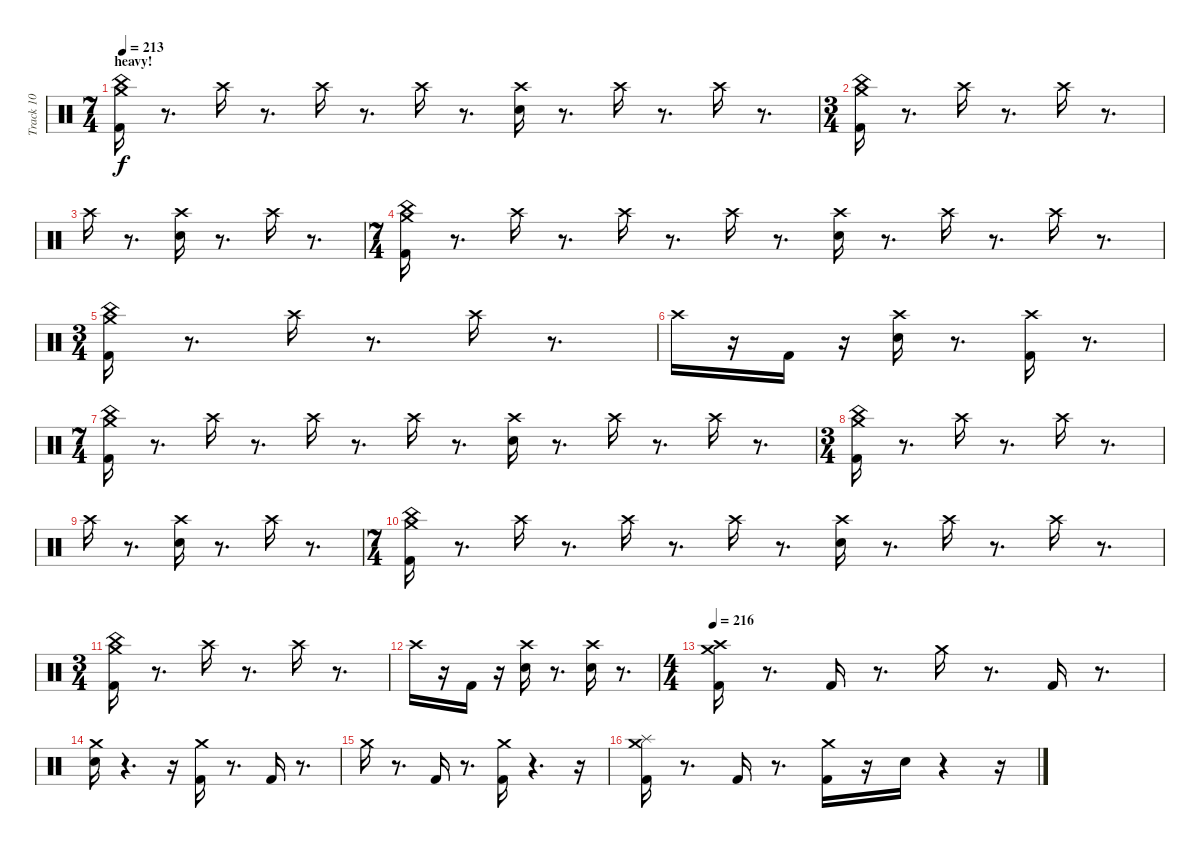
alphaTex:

\track ("Track 10" "Track 10") {instrument percussion}
\staff {score}
\articulation defaults
\ts (7 4)
\section ("" "heavy!")
\tempo 213
\clef neutral
\ks c
("Kick (hit) 2" "China (hit)" "Crash medium (hit)").16{dy f} r.8{d} "Crash high (hit)".16 r.8{d} "Crash high (hit)".16 r.8{d} "Crash high (hit)".16 r.8{d} ("Snare (hit) 2" "Crash high (hit)").16 r.8{d} "Crash high (hit)".16 r.8{d} "Crash high (hit)".16 r.8{d} |
\ts (3 4)
("Kick (hit) 2" "China (hit)" "Crash medium (hit)").16 r.8{d} "Crash high (hit)".16 r.8{d} "Crash high (hit)".16 r.8{d} |
"Crash high (hit)".16 r.8{d} ("Snare (hit) 2" "Crash high (hit)").16 r.8{d} "Crash high (hit)".16 r.8{d} |
\ts (7 4)
("Kick (hit) 2" "China (hit)" "Crash medium (hit)").16 r.8{d} "Crash high (hit)".16 r.8{d} "Crash high (hit)".16 r.8{d} "Crash high (hit)".16 r.8{d} ("Snare (hit) 2" "Crash high (hit)").16 r.8{d} "Crash high (hit)".16 r.8{d} "Crash high (hit)".16 r.8{d} |
\ts (3 4)
("Kick (hit) 2" "China (hit)" "Crash medium (hit)").16 r.8{d} "Crash high (hit)".16 r.8{d} "Crash high (hit)".16 r.8{d} |
"Crash high (hit)".16 r.16 "Kick (hit) 2".16 r.16 ("Snare (hit) 2" "Crash high (hit)").16 r.8{d} ("Kick (hit) 2" "Crash high (hit)").16 r.8{d} |
\ts (7 4)
("Kick (hit) 2" "China (hit)" "Crash medium (hit)").16 r.8{d} "Crash high (hit)".16 r.8{d} "Crash high (hit)".16 r.8{d} "Crash high (hit)".16 r.8{d} ("Snare (hit) 2" "Crash high (hit)").16 r.8{d} "Crash high (hit)".16 r.8{d} "Crash high (hit)".16 r.8{d} |
\ts (3 4)
("Kick (hit) 2" "China (hit)" "Crash medium (hit)").16 r.8{d} "Crash high (hit)".16 r.8{d} "Crash high (hit)".16 r.8{d} |
"Crash high (hit)".16 r.8{d} ("Snare (hit) 2" "Crash high (hit)").16 r.8{d} "Crash high (hit)".16 r.8{d} |
\ts (7 4)
("Kick (hit) 2" "China (hit)" "Crash medium (hit)").16 r.8{d} "Crash high (hit)".16 r.8{d} "Crash high (hit)".16 r.8{d} "Crash high (hit)".16 r.8{d} ("Snare (hit) 2" "Crash high (hit)").16 r.8{d} "Crash high (hit)".16 r.8{d} "Crash high (hit)".16 r.8{d} |
\ts (3 4)
("Kick (hit) 2" "China (hit)" "Crash medium (hit)").16 r.8{d} "Crash high (hit)".16 r.8{d} "Crash high (hit)".16 r.8{d} |
"Crash high (hit)".16 r.16 "Kick (hit) 2".16 r.16 ("Snare (hit) 2" "Crash high (hit)").16 r.8{d} ("Snare (hit) 2" "Crash high (hit)").16 r.8{d} |
\ts (4 4)
\tempo 216
("Kick (hit) 2" "Crash high (hit)" "Crash medium (hit)").16 r.8{d} "Kick (hit) 2".16 r.8{d} "Crash medium (hit)".16 r.8{d} "Kick (hit) 2".16 r.8{d} |
("Snare (hit) 2" "Crash medium (hit)").16 r.4{d} r.16 ("Kick (hit) 2" "Crash medium (hit)").16 r.8{d} "Kick (hit) 2".16 r.8{d} |
"Crash medium (hit)".16 r.8{d} "Kick (hit) 2".16 r.8{d} ("Kick (hit) 2" "Crash medium (hit)").16 r.4{d} r.16 |
("Kick (hit) 2" "Splash (hit)" "Crash medium (hit)").16 r.8{d} "Kick (hit) 2".16 r.8{d} ("Kick (hit) 2" "Crash medium (hit)").16 r.16 "Snare (hit) 2".16 r.4 r.16
